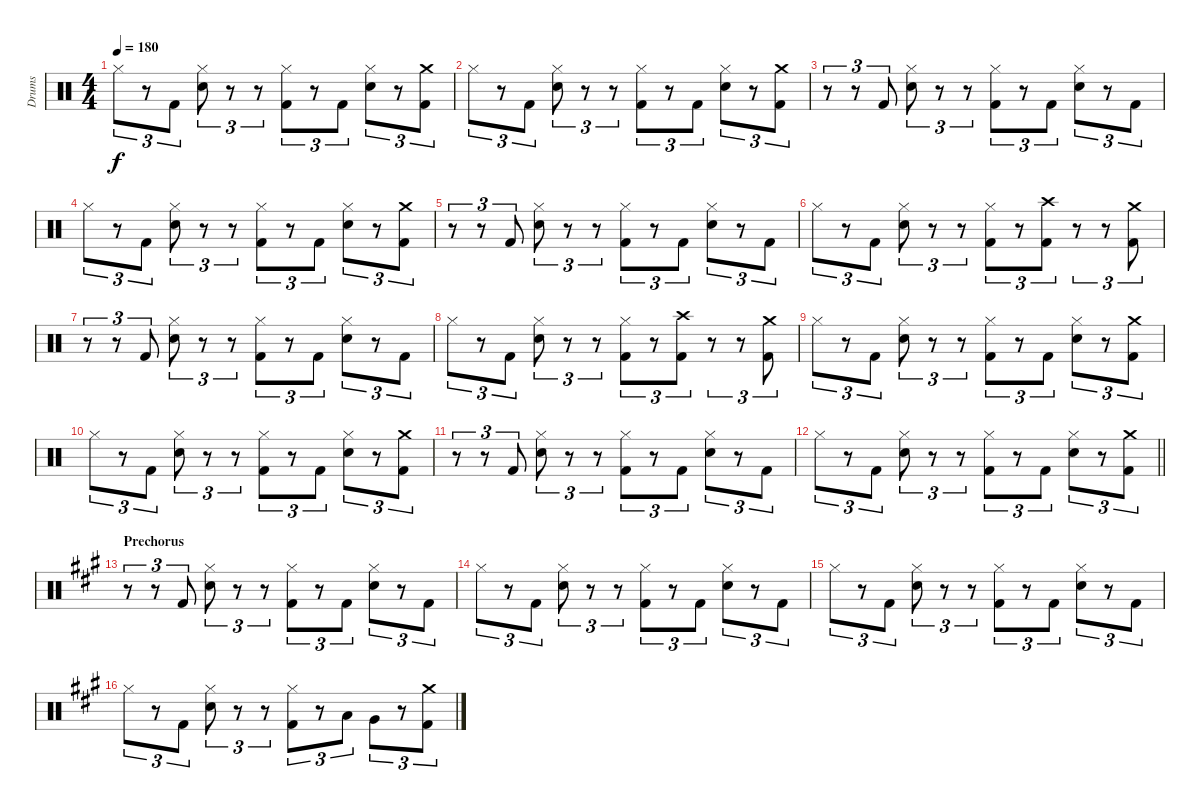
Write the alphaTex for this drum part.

\track ("Drums" "Drums") {instrument percussion}
\staff {score}
\articulation defaults
\ts (4 4)
\tempo 180
\clef neutral
\ks c "Hi-Hat (closed)".8{tu (3 2) dy f}
r.8{tu (3 2)} "Kick (hit) 2".8{tu (3 2)} ("Hi-Hat (closed)" "Snare (hit) 2").8{tu (3 2)} r.8{tu (3 2)} r.8{tu (3 2)} ("Hi-Hat (closed)" "Kick (hit) 2").8{tu (3 2)} r.8{tu (3 2)} "Kick (hit) 2".8{tu (3 2)} ("Hi-Hat (closed)" "Snare (hit) 2").8{tu (3 2)} r.8{tu (3 2)} ("Crash medium (hit)" "Kick (hit) 2").8{tu (3 2)} |
"Hi-Hat (closed)".8{tu (3 2)} r.8{tu (3 2)} "Kick (hit) 2".8{tu (3 2)} ("Hi-Hat (closed)" "Snare (hit) 2").8{tu (3 2)} r.8{tu (3 2)} r.8{tu (3 2)} ("Hi-Hat (closed)" "Kick (hit) 2").8{tu (3 2)} r.8{tu (3 2)} "Kick (hit) 2".8{tu (3 2)} ("Hi-Hat (closed)" "Snare (hit) 2").8{tu (3 2)} r.8{tu (3 2)} ("Crash medium (hit)" "Kick (hit) 2").8{tu (3 2)} |
r.8{tu (3 2)} r.8{tu (3 2)} "Kick (hit) 2".8{tu (3 2)} ("Hi-Hat (closed)" "Snare (hit) 2").8{tu (3 2)} r.8{tu (3 2)} r.8{tu (3 2)} ("Hi-Hat (closed)" "Kick (hit) 2").8{tu (3 2)} r.8{tu (3 2)} "Kick (hit) 2".8{tu (3 2)} ("Hi-Hat (closed)" "Snare (hit) 2").8{tu (3 2)} r.8{tu (3 2)} "Kick (hit) 2".8{tu (3 2)} |
"Hi-Hat (closed)".8{tu (3 2)} r.8{tu (3 2)} "Kick (hit) 2".8{tu (3 2)} ("Hi-Hat (closed)" "Snare (hit) 2").8{tu (3 2)} r.8{tu (3 2)} r.8{tu (3 2)} ("Hi-Hat (closed)" "Kick (hit) 2").8{tu (3 2)} r.8{tu (3 2)} "Kick (hit) 2".8{tu (3 2)} ("Hi-Hat (closed)" "Snare (hit) 2").8{tu (3 2)} r.8{tu (3 2)} ("Crash medium (hit)" "Kick (hit) 2").8{tu (3 2)} |
r.8{tu (3 2)} r.8{tu (3 2)} "Kick (hit) 2".8{tu (3 2)} ("Hi-Hat (closed)" "Snare (hit) 2").8{tu (3 2)} r.8{tu (3 2)} r.8{tu (3 2)} ("Hi-Hat (closed)" "Kick (hit) 2").8{tu (3 2)} r.8{tu (3 2)} "Kick (hit) 2".8{tu (3 2)} ("Hi-Hat (closed)" "Snare (hit) 2").8{tu (3 2)} r.8{tu (3 2)} "Kick (hit) 2".8{tu (3 2)} |
"Hi-Hat (closed)".8{tu (3 2)} r.8{tu (3 2)} "Kick (hit) 2".8{tu (3 2)} ("Hi-Hat (closed)" "Snare (hit) 2").8{tu (3 2)} r.8{tu (3 2)} r.8{tu (3 2)} ("Hi-Hat (closed)" "Kick (hit) 2").8{tu (3 2)} r.8{tu (3 2)} ("Crash high (hit)" "Kick (hit) 2").8{tu (3 2)} r.8{tu (3 2)} r.8{tu (3 2)} ("Crash medium (hit)" "Kick (hit) 2").8{tu (3 2)} |
r.8{tu (3 2)} r.8{tu (3 2)} "Kick (hit) 2".8{tu (3 2)} ("Hi-Hat (closed)" "Snare (hit) 2").8{tu (3 2)} r.8{tu (3 2)} r.8{tu (3 2)} ("Hi-Hat (closed)" "Kick (hit) 2").8{tu (3 2)} r.8{tu (3 2)} "Kick (hit) 2".8{tu (3 2)} ("Hi-Hat (closed)" "Snare (hit) 2").8{tu (3 2)} r.8{tu (3 2)} "Kick (hit) 2".8{tu (3 2)} |
"Hi-Hat (closed)".8{tu (3 2)} r.8{tu (3 2)} "Kick (hit) 2".8{tu (3 2)} ("Hi-Hat (closed)" "Snare (hit) 2").8{tu (3 2)} r.8{tu (3 2)} r.8{tu (3 2)} ("Hi-Hat (closed)" "Kick (hit) 2").8{tu (3 2)} r.8{tu (3 2)} ("Crash high (hit)" "Kick (hit) 2").8{tu (3 2)} r.8{tu (3 2)} r.8{tu (3 2)} ("Crash medium (hit)" "Kick (hit) 2").8{tu (3 2)} |
"Hi-Hat (closed)".8{tu (3 2)} r.8{tu (3 2)} "Kick (hit) 2".8{tu (3 2)} ("Hi-Hat (closed)" "Snare (hit) 2").8{tu (3 2)} r.8{tu (3 2)} r.8{tu (3 2)} ("Hi-Hat (closed)" "Kick (hit) 2").8{tu (3 2)} r.8{tu (3 2)} "Kick (hit) 2".8{tu (3 2)} ("Hi-Hat (closed)" "Snare (hit) 2").8{tu (3 2)} r.8{tu (3 2)} ("Crash medium (hit)" "Kick (hit) 2").8{tu (3 2)} |
"Hi-Hat (closed)".8{tu (3 2)} r.8{tu (3 2)} "Kick (hit) 2".8{tu (3 2)} ("Hi-Hat (closed)" "Snare (hit) 2").8{tu (3 2)} r.8{tu (3 2)} r.8{tu (3 2)} ("Hi-Hat (closed)" "Kick (hit) 2").8{tu (3 2)} r.8{tu (3 2)} "Kick (hit) 2".8{tu (3 2)} ("Hi-Hat (closed)" "Snare (hit) 2").8{tu (3 2)} r.8{tu (3 2)} ("Crash medium (hit)" "Kick (hit) 2").8{tu (3 2)} |
r.8{tu (3 2)} r.8{tu (3 2)} "Kick (hit) 2".8{tu (3 2)} ("Hi-Hat (closed)" "Snare (hit) 2").8{tu (3 2)} r.8{tu (3 2)} r.8{tu (3 2)} ("Hi-Hat (closed)" "Kick (hit) 2").8{tu (3 2)} r.8{tu (3 2)} "Kick (hit) 2".8{tu (3 2)} ("Hi-Hat (closed)" "Snare (hit) 2").8{tu (3 2)} r.8{tu (3 2)} "Kick (hit) 2".8{tu (3 2)} |
\barLineRight lightlight "Hi-Hat (closed)".8{tu (3 2)}
r.8{tu (3 2)} "Kick (hit) 2".8{tu (3 2)} ("Hi-Hat (closed)" "Snare (hit) 2").8{tu (3 2)} r.8{tu (3 2)} r.8{tu (3 2)} ("Hi-Hat (closed)" "Kick (hit) 2").8{tu (3 2)} r.8{tu (3 2)} "Kick (hit) 2".8{tu (3 2)} ("Hi-Hat (closed)" "Snare (hit) 2").8{tu (3 2)} r.8{tu (3 2)} ("Crash medium (hit)" "Kick (hit) 2").8{tu (3 2)} |
\section ("" "Prechorus")
\ks a
r.8{tu (3 2)} r.8{tu (3 2)} "Kick (hit) 2".8{tu (3 2)} ("Hi-Hat (closed)" "Snare (hit) 2").8{tu (3 2)} r.8{tu (3 2)} r.8{tu (3 2)} ("Hi-Hat (closed)" "Kick (hit) 2").8{tu (3 2)} r.8{tu (3 2)} "Kick (hit) 2".8{tu (3 2)} ("Hi-Hat (closed)" "Snare (hit) 2").8{tu (3 2)} r.8{tu (3 2)} "Kick (hit) 2".8{tu (3 2)} |
"Hi-Hat (closed)".8{tu (3 2)} r.8{tu (3 2)} "Kick (hit) 2".8{tu (3 2)} ("Hi-Hat (closed)" "Snare (hit) 2").8{tu (3 2)} r.8{tu (3 2)} r.8{tu (3 2)} ("Hi-Hat (closed)" "Kick (hit) 2").8{tu (3 2)} r.8{tu (3 2)} "Kick (hit) 2".8{tu (3 2)} ("Hi-Hat (closed)" "Snare (hit) 2").8{tu (3 2)} r.8{tu (3 2)} "Kick (hit) 2".8{tu (3 2)} |
"Hi-Hat (closed)".8{tu (3 2)} r.8{tu (3 2)} "Kick (hit) 2".8{tu (3 2)} ("Hi-Hat (closed)" "Snare (hit) 2").8{tu (3 2)} r.8{tu (3 2)} r.8{tu (3 2)} ("Hi-Hat (closed)" "Kick (hit) 2").8{tu (3 2)} r.8{tu (3 2)} "Kick (hit) 2".8{tu (3 2)} ("Hi-Hat (closed)" "Snare (hit) 2").8{tu (3 2)} r.8{tu (3 2)} "Kick (hit) 2".8{tu (3 2)} |
"Hi-Hat (closed)".8{tu (3 2)} r.8{tu (3 2)} "Kick (hit) 2".8{tu (3 2)} ("Hi-Hat (closed)" "Snare (hit) 2").8{tu (3 2)} r.8{tu (3 2)} r.8{tu (3 2)} ("Hi-Hat (closed)" "Kick (hit) 2").8{tu (3 2)} r.8{tu (3 2)} "Low Tom (hit)".8{tu (3 2)} "Very Low Tom (hit)".8{tu (3 2)} r.8{tu (3 2)} ("Crash medium (hit)" "Kick (hit) 2").8{tu (3 2)}
